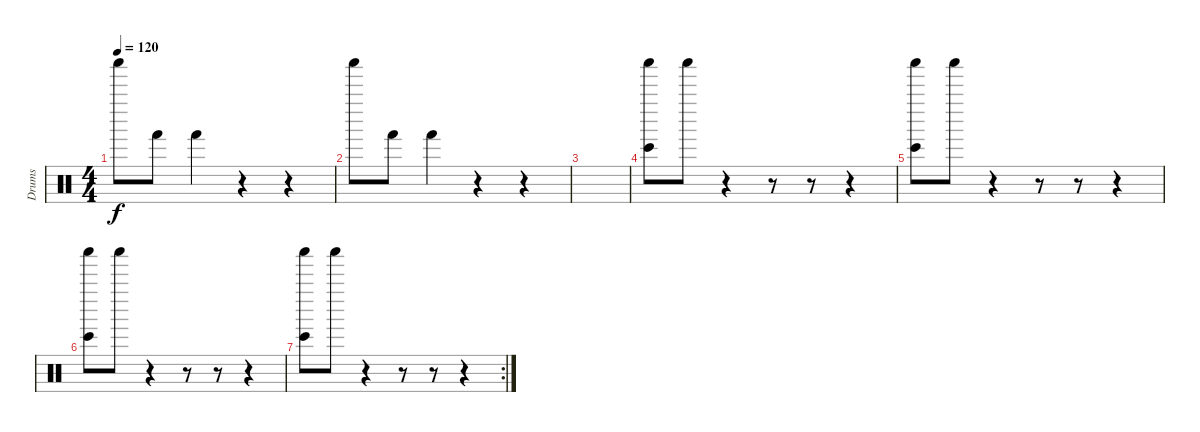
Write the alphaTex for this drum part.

\track ("Drums" "Drums") {instrument percussion}
\staff {score}
\articulation defaults
\ts (4 4)
\tempo 120
\clef neutral
\ks c "Shaker (hit)".8{dy f} "Hand (hit)".8 "Hand (hit)".4
r.4 r.4 |
"Shaker (hit)".8 "Hand (hit)".8 "Hand (hit)".4 r.4 r.4 |
|
("Shaker (hit)" "Bongo High (hit)").8 "Shaker (hit)".8 r.4 r.8 r.8 r.4 |
("Shaker (hit)" "Bongo High (hit)").8 "Shaker (hit)".8 r.4 r.8 r.8 r.4 |
("Shaker (hit)" "Bongo High (hit)").8 "Shaker (hit)".8 r.4 r.8 r.8 r.4 |
\rc 2
("Shaker (hit)" "Bongo High (hit)").8 "Shaker (hit)".8 r.4 r.8 r.8 r.4
